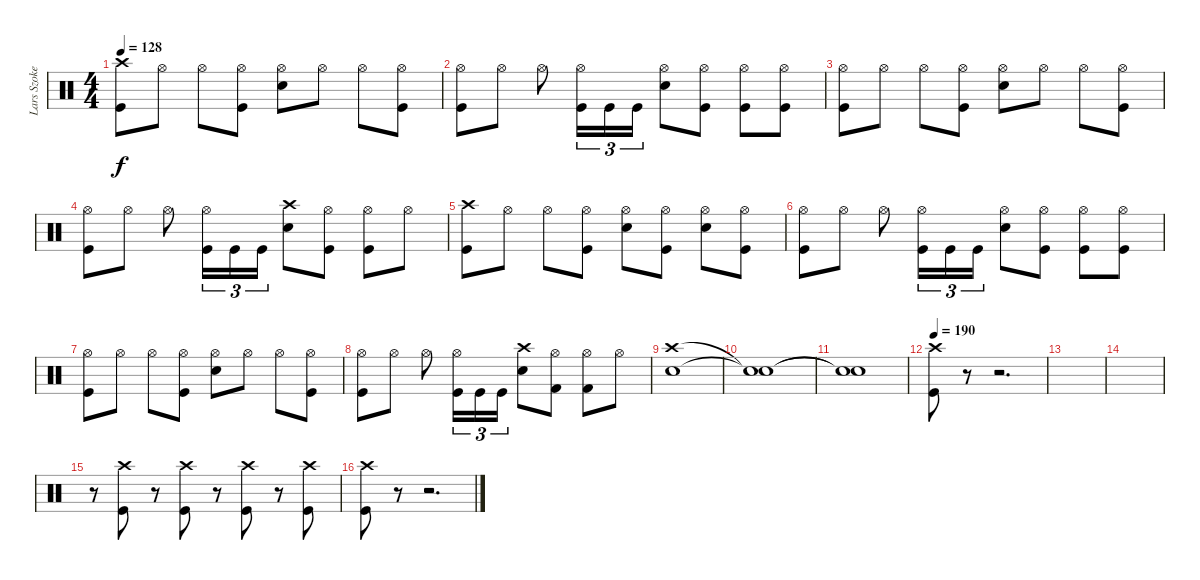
\track ("Lars Szoke" "Lars Szoke") {instrument percussion}
\staff {score}
\articulation defaults
\ts (4 4)
\tempo 128
\clef neutral
\ks c
("Crash high (hit)" "Kick (hit)").8{dy f} "Hi-Hat (open)".8 "Hi-Hat (open)".8 ("Hi-Hat (open)" "Kick (hit)").8 ("Hi-Hat (open)" "Snare (hit) 2").8 "Hi-Hat (open)".8 "Hi-Hat (open)".8 ("Hi-Hat (open)" "Kick (hit)").8 |
("Hi-Hat (open)" "Kick (hit)").8 "Hi-Hat (open)".8 "Hi-Hat (open)".8 ("Hi-Hat (open)" "Kick (hit)").16{tu (3 2)} "Kick (hit)".16{tu (3 2)} "Kick (hit)".16{tu (3 2)} ("Hi-Hat (open)" "Snare (hit) 2").8 ("Hi-Hat (open)" "Kick (hit)").8 ("Hi-Hat (open)" "Kick (hit)").8 ("Hi-Hat (open)" "Kick (hit)").8 |
("Hi-Hat (open)" "Kick (hit)").8 "Hi-Hat (open)".8 "Hi-Hat (open)".8 ("Hi-Hat (open)" "Kick (hit)").8 ("Hi-Hat (open)" "Snare (hit) 2").8 "Hi-Hat (open)".8 "Hi-Hat (open)".8 ("Hi-Hat (open)" "Kick (hit)").8 |
("Hi-Hat (open)" "Kick (hit)").8 "Hi-Hat (open)".8 "Hi-Hat (open)".8 ("Hi-Hat (open)" "Kick (hit)").16{tu (3 2)} "Kick (hit)".16{tu (3 2)} "Kick (hit)".16{tu (3 2)} ("Crash high (hit)" "Snare (hit) 2").8 ("Hi-Hat (open)" "Kick (hit)").8 ("Hi-Hat (open)" "Kick (hit)").8 "Hi-Hat (open)".8 |
("Crash high (hit)" "Kick (hit)").8 "Hi-Hat (open)".8 "Hi-Hat (open)".8 ("Hi-Hat (open)" "Kick (hit)").8 ("Hi-Hat (open)" "Snare (hit) 2").8 ("Hi-Hat (open)" "Kick (hit)").8 ("Hi-Hat (open)" "Snare (hit) 2").8 ("Hi-Hat (open)" "Kick (hit)").8 |
("Hi-Hat (open)" "Kick (hit)").8 "Hi-Hat (open)".8 "Hi-Hat (open)".8 ("Hi-Hat (open)" "Kick (hit)").16{tu (3 2)} "Kick (hit)".16{tu (3 2)} "Kick (hit)".16{tu (3 2)} ("Hi-Hat (open)" "Snare (hit) 2").8 ("Hi-Hat (open)" "Kick (hit)").8 ("Hi-Hat (open)" "Kick (hit)").8 ("Hi-Hat (open)" "Kick (hit)").8 |
("Hi-Hat (open)" "Kick (hit)").8 "Hi-Hat (open)".8 "Hi-Hat (open)".8 ("Hi-Hat (open)" "Kick (hit)").8 ("Hi-Hat (open)" "Snare (hit) 2").8 "Hi-Hat (open)".8 "Hi-Hat (open)".8 ("Hi-Hat (open)" "Kick (hit)").8 |
("Hi-Hat (open)" "Kick (hit)").8 "Hi-Hat (open)".8 "Hi-Hat (open)".8 ("Hi-Hat (open)" "Kick (hit)").16{tu (3 2)} "Kick (hit)".16{tu (3 2)} "Kick (hit)".16{tu (3 2)} ("Crash high (hit)" "Snare (hit) 2").8 ("Hi-Hat (open)" "Kick (hit) 2").8 ("Hi-Hat (open)" "Kick (hit) 2").8 "Hi-Hat (open)".8 |
("Crash high (hit)" "Snare (hit) 2").1 |
("Snare (hit)"{t} "Snare (hit)"{t}).1 |
("Snare (hit)"{t} "Snare (hit)"{t}).1 |
\tempo 190
("Crash high (hit)" "Kick (hit)").8 r.8 r.2{d} |
|
|
r.8 ("Crash high (hit)" "Kick (hit)").8 r.8 ("Crash high (hit)" "Kick (hit)").8 r.8 ("Crash high (hit)" "Kick (hit)").8 r.8 ("Crash high (hit)" "Kick (hit)").8 |
("Crash high (hit)" "Kick (hit)").8 r.8 r.2{d}
